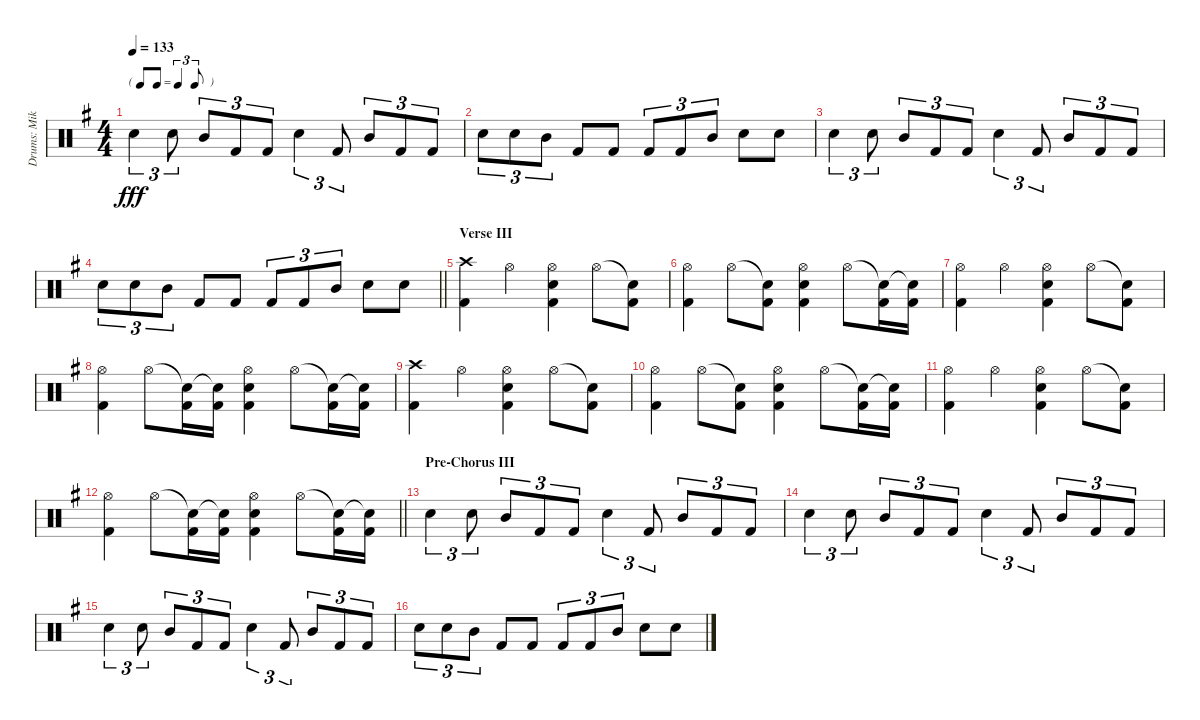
\track ("Drums: Mike" "Drums: Mik") {instrument percussion}
\staff {score}
\articulation defaults
\ts (4 4)
\tf triplet8th
\tempo 133
\clef neutral
\ks g "Electric Snare (hit)".4{tu (3 2) dy fff} "Electric Snare (hit)".8{tu (3 2)} "Mid Tom (hit)".8{tu (3 2)} "Kick (hit) 2".8{tu (3 2)} "Kick (hit) 2".8{tu (3 2)} "Electric Snare (hit)".4{tu (3 2)} "Kick (hit) 2".8{tu (3 2)} "Mid Tom (hit)".8{tu (3 2)} "Kick (hit) 2".8{tu (3 2)} "Kick (hit) 2".8{tu (3 2)}
|
"Electric Snare (hit)".8{tu (3 2)} "Electric Snare (hit)".8{tu (3 2)} "Mid Tom (hit)".8{tu (3 2)} "Kick (hit) 2".8 "Kick (hit) 2".8 "Kick (hit) 2".8{tu (3 2)} "Kick (hit) 2".8{tu (3 2)} "Mid Tom (hit)".8{tu (3 2)} "Electric Snare (hit)".8 "Electric Snare (hit)".8 |
"Electric Snare (hit)".4{tu (3 2)} "Electric Snare (hit)".8{tu (3 2)} "Mid Tom (hit)".8{tu (3 2)} "Kick (hit) 2".8{tu (3 2)} "Kick (hit) 2".8{tu (3 2)} "Electric Snare (hit)".4{tu (3 2)} "Kick (hit) 2".8{tu (3 2)} "Mid Tom (hit)".8{tu (3 2)} "Kick (hit) 2".8{tu (3 2)} "Kick (hit) 2".8{tu (3 2)} |
\barLineRight lightlight "Electric Snare (hit)".8{tu (3 2)} "Electric Snare (hit)".8{tu (3 2)} "Mid Tom (hit)".8{tu (3 2)} "Kick (hit) 2".8 "Kick (hit) 2".8 "Kick (hit) 2".8{tu (3 2)} "Kick (hit) 2".8{tu (3 2)} "Mid Tom (hit)".8{tu (3 2)} "Electric Snare (hit)".8 "Electric Snare (hit)".8
|
\section ("" "Verse III")
("Crash high (hit)" "Kick (hit) 2").4 "Hi-Hat (open)".4 ("Hi-Hat (open)" "Electric Snare (hit)" "Kick (hit) 2").4 "Hi-Hat (open)".8 ("Snare (hit)"{t} "Kick (hit) 2").8 |
("Hi-Hat (open)" "Kick (hit) 2").4 "Hi-Hat (open)".8 ("Snare (hit)"{t} "Kick (hit) 2").8 ("Hi-Hat (open)" "Electric Snare (hit)" "Kick (hit) 2").4 "Hi-Hat (open)".8 ("Snare (hit)"{t} "Kick (hit) 2").16 ("Snare (hit)"{t} "Kick (hit) 2").16 |
("Hi-Hat (open)" "Kick (hit) 2").4 "Hi-Hat (open)".4 ("Hi-Hat (open)" "Electric Snare (hit)" "Kick (hit) 2").4 "Hi-Hat (open)".8 ("Snare (hit)"{t} "Kick (hit) 2").8 |
("Hi-Hat (open)" "Kick (hit) 2").4 "Hi-Hat (open)".8 ("Snare (hit)"{t} "Kick (hit) 2").16 ("Snare (hit)"{t} "Kick (hit) 2").16 ("Hi-Hat (open)" "Electric Snare (hit)" "Kick (hit) 2").4 "Hi-Hat (open)".8 ("Snare (hit)"{t} "Kick (hit) 2").16 ("Snare (hit)"{t} "Kick (hit) 2").16 |
("Crash high (hit)" "Kick (hit) 2").4 "Hi-Hat (open)".4 ("Hi-Hat (open)" "Electric Snare (hit)" "Kick (hit) 2").4 "Hi-Hat (open)".8 ("Snare (hit)"{t} "Kick (hit) 2").8 |
("Hi-Hat (open)" "Kick (hit) 2").4 "Hi-Hat (open)".8 ("Snare (hit)"{t} "Kick (hit) 2").8 ("Hi-Hat (open)" "Electric Snare (hit)" "Kick (hit) 2").4 "Hi-Hat (open)".8 ("Snare (hit)"{t} "Kick (hit) 2").16 ("Snare (hit)"{t} "Kick (hit) 2").16 |
("Hi-Hat (open)" "Kick (hit) 2").4 "Hi-Hat (open)".4 ("Hi-Hat (open)" "Electric Snare (hit)" "Kick (hit) 2").4 "Hi-Hat (open)".8 ("Snare (hit)"{t} "Kick (hit) 2").8 |
\barLineRight lightlight
("Hi-Hat (open)" "Kick (hit) 2").4 "Hi-Hat (open)".8 ("Snare (hit)"{t} "Kick (hit) 2").16 ("Snare (hit)"{t} "Kick (hit) 2").16 ("Hi-Hat (open)" "Electric Snare (hit)" "Kick (hit) 2").4 "Hi-Hat (open)".8 ("Snare (hit)"{t} "Kick (hit) 2").16 ("Snare (hit)"{t} "Kick (hit) 2").16 |
\section ("" "Pre-Chorus III")
"Electric Snare (hit)".4{tu (3 2)} "Electric Snare (hit)".8{tu (3 2)} "Mid Tom (hit)".8{tu (3 2)} "Kick (hit) 2".8{tu (3 2)} "Kick (hit) 2".8{tu (3 2)} "Electric Snare (hit)".4{tu (3 2)} "Kick (hit) 2".8{tu (3 2)} "Mid Tom (hit)".8{tu (3 2)} "Kick (hit) 2".8{tu (3 2)} "Kick (hit) 2".8{tu (3 2)} |
"Electric Snare (hit)".4{tu (3 2)} "Electric Snare (hit)".8{tu (3 2)} "Mid Tom (hit)".8{tu (3 2)} "Kick (hit) 2".8{tu (3 2)} "Kick (hit) 2".8{tu (3 2)} "Electric Snare (hit)".4{tu (3 2)} "Kick (hit) 2".8{tu (3 2)} "Mid Tom (hit)".8{tu (3 2)} "Kick (hit) 2".8{tu (3 2)} "Kick (hit) 2".8{tu (3 2)} |
"Electric Snare (hit)".4{tu (3 2)} "Electric Snare (hit)".8{tu (3 2)} "Mid Tom (hit)".8{tu (3 2)} "Kick (hit) 2".8{tu (3 2)} "Kick (hit) 2".8{tu (3 2)} "Electric Snare (hit)".4{tu (3 2)} "Kick (hit) 2".8{tu (3 2)} "Mid Tom (hit)".8{tu (3 2)} "Kick (hit) 2".8{tu (3 2)} "Kick (hit) 2".8{tu (3 2)} |
"Electric Snare (hit)".8{tu (3 2)} "Electric Snare (hit)".8{tu (3 2)} "Mid Tom (hit)".8{tu (3 2)} "Kick (hit) 2".8 "Kick (hit) 2".8 "Kick (hit) 2".8{tu (3 2)} "Kick (hit) 2".8{tu (3 2)} "Mid Tom (hit)".8{tu (3 2)} "Electric Snare (hit)".8 "Electric Snare (hit)".8
